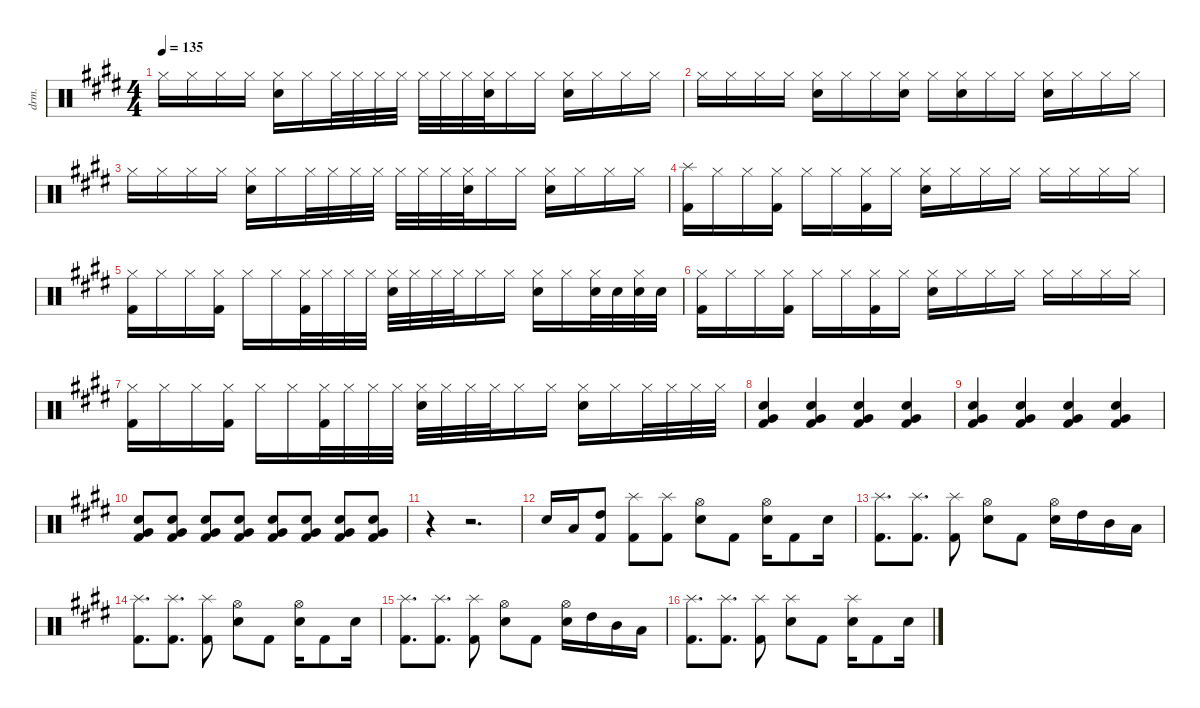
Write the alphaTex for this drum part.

\defaultSystemsLayout 4
\hideDynamics
\bracketExtendMode nobrackets
\track ("Drumkit" "drm.") {instrument percussion}
\staff {score}
\articulation defaults
\ts (4 4)
\tempo 135
\clef neutral
\ks e "Hi-Hat (closed)"{acc forcenatural}.16{dy mf} "Hi-Hat (closed)"{acc forcenatural}.16 "Hi-Hat (closed)"{acc forcenatural}.16 "Hi-Hat (closed)"{acc forcenatural}.16
("Hi-Hat (closed)"{acc forcenatural} "Snare (hit) 2"{acc forcenatural}).16 "Hi-Hat (closed)"{acc forcenatural}.16 "Hi-Hat (closed)"{acc forcenatural}.32 "Hi-Hat (closed)"{acc forcenatural}.32 "Hi-Hat (closed)"{acc forcenatural}.32 "Hi-Hat (closed)"{acc forcenatural}.32 "Hi-Hat (closed)"{acc forcenatural}.32 "Hi-Hat (closed)"{acc forcenatural}.32 "Hi-Hat (closed)"{acc forcenatural}.32 ("Hi-Hat (closed)"{acc forcenatural} "Snare (hit) 2"{acc forcenatural}).32 "Hi-Hat (closed)"{acc forcenatural}.16 "Hi-Hat (closed)"{acc forcenatural}.16 ("Hi-Hat (closed)"{acc forcenatural} "Snare (hit) 2"{acc forcenatural}).16 "Hi-Hat (closed)"{acc forcenatural}.16 "Hi-Hat (closed)"{acc forcenatural}.16 "Hi-Hat (closed)"{acc forcenatural}.16 |
"Hi-Hat (closed)"{acc forcenatural}.16 "Hi-Hat (closed)"{acc forcenatural}.16 "Hi-Hat (closed)"{acc forcenatural}.16 "Hi-Hat (closed)"{acc forcenatural}.16 ("Hi-Hat (closed)"{acc forcenatural} "Snare (hit) 2"{acc forcenatural}).16 "Hi-Hat (closed)"{acc forcenatural}.16 "Hi-Hat (closed)"{acc forcenatural}.16 ("Hi-Hat (closed)"{acc forcenatural} "Snare (hit) 2"{acc forcenatural}).16 "Hi-Hat (closed)"{acc forcenatural}.16 ("Hi-Hat (closed)"{acc forcenatural} "Snare (hit) 2"{acc forcenatural}).16 "Hi-Hat (closed)"{acc forcenatural}.16 "Hi-Hat (closed)"{acc forcenatural}.16 ("Hi-Hat (closed)"{acc forcenatural} "Snare (hit) 2"{acc forcenatural}).16 "Hi-Hat (closed)"{acc forcenatural}.16 "Hi-Hat (closed)"{acc forcenatural}.16 "Hi-Hat (closed)"{acc forcenatural}.16 |
"Hi-Hat (closed)"{acc forcenatural}.16 "Hi-Hat (closed)"{acc forcenatural}.16 "Hi-Hat (closed)"{acc forcenatural}.16 "Hi-Hat (closed)"{acc forcenatural}.16 ("Hi-Hat (closed)"{acc forcenatural} "Snare (hit) 2"{acc forcenatural}).16 "Hi-Hat (closed)"{acc forcenatural}.16 "Hi-Hat (closed)"{acc forcenatural}.32 "Hi-Hat (closed)"{acc forcenatural}.32 "Hi-Hat (closed)"{acc forcenatural}.32 "Hi-Hat (closed)"{acc forcenatural}.32 "Hi-Hat (closed)"{acc forcenatural}.32 "Hi-Hat (closed)"{acc forcenatural}.32 "Hi-Hat (closed)"{acc forcenatural}.32 ("Hi-Hat (closed)"{acc forcenatural} "Snare (hit) 2"{acc forcenatural}).32 "Hi-Hat (closed)"{acc forcenatural}.16 "Hi-Hat (closed)"{acc forcenatural}.16 ("Hi-Hat (closed)"{acc forcenatural} "Snare (hit) 2"{acc forcenatural}).16 "Hi-Hat (closed)"{acc forcenatural}.16 "Hi-Hat (closed)"{acc forcenatural}.16 "Hi-Hat (closed)"{acc forcenatural}.16 |
("Splash (hit)"{acc forcenatural} "Kick (hit) 2"{acc forcenatural}).16 "Hi-Hat (closed)"{acc forcenatural}.16 "Hi-Hat (closed)"{acc forcenatural}.16 ("Hi-Hat (closed)"{acc forcenatural} "Kick (hit) 2"{acc forcenatural}).16 "Hi-Hat (closed)"{acc forcenatural}.16 "Hi-Hat (closed)"{acc forcenatural}.16 ("Hi-Hat (closed)"{acc forcenatural} "Kick (hit) 2"{acc forcenatural}).16 "Hi-Hat (closed)"{acc forcenatural}.16 ("Hi-Hat (closed)"{acc forcenatural} "Snare (hit) 2"{acc forcenatural}).16 "Hi-Hat (closed)"{acc forcenatural}.16 "Hi-Hat (closed)"{acc forcenatural}.16 "Hi-Hat (closed)"{acc forcenatural}.16 "Hi-Hat (closed)"{acc forcenatural}.16 "Hi-Hat (closed)"{acc forcenatural}.16 "Hi-Hat (closed)"{acc forcenatural}.16 "Hi-Hat (closed)"{acc forcenatural}.16 |
("Hi-Hat (closed)"{acc forcenatural} "Kick (hit) 2"{acc forcenatural}).16 "Hi-Hat (closed)"{acc forcenatural}.16 "Hi-Hat (closed)"{acc forcenatural}.16 ("Hi-Hat (closed)"{acc forcenatural} "Kick (hit) 2"{acc forcenatural}).16 "Hi-Hat (closed)"{acc forcenatural}.16 "Hi-Hat (closed)"{acc forcenatural}.16 ("Hi-Hat (closed)"{acc forcenatural} "Kick (hit) 2"{acc forcenatural}).32 "Hi-Hat (closed)"{acc forcenatural}.32 "Hi-Hat (closed)"{acc forcenatural}.32 "Hi-Hat (closed)"{acc forcenatural}.32 ("Hi-Hat (closed)"{acc forcenatural} "Snare (hit) 2"{acc forcenatural}).32 "Hi-Hat (closed)"{acc forcenatural}.32 "Hi-Hat (closed)"{acc forcenatural}.32 "Hi-Hat (closed)"{acc forcenatural}.32 "Hi-Hat (closed)"{acc forcenatural}.16 "Hi-Hat (closed)"{acc forcenatural}.16 ("Hi-Hat (closed)"{acc forcenatural} "Snare (hit) 2"{acc forcenatural}).16 "Hi-Hat (closed)"{acc forcenatural}.16 ("Hi-Hat (closed)"{acc forcenatural} "Snare (hit) 2"{acc forcenatural}).32 "Snare (hit) 2"{acc forcenatural}.32 ("Hi-Hat (closed)"{acc forcenatural} "Snare (hit) 2"{acc forcenatural}).32 "Snare (hit) 2"{acc forcenatural}.32 |
("Kick (hit) 2"{acc forcenatural} "Hi-Hat (closed)"{acc forcenatural}).16 "Hi-Hat (closed)"{acc forcenatural}.16 "Hi-Hat (closed)"{acc forcenatural}.16 ("Hi-Hat (closed)"{acc forcenatural} "Kick (hit) 2"{acc forcenatural}).16 "Hi-Hat (closed)"{acc forcenatural}.16 "Hi-Hat (closed)"{acc forcenatural}.16 ("Hi-Hat (closed)"{acc forcenatural} "Kick (hit) 2"{acc forcenatural}).16 "Hi-Hat (closed)"{acc forcenatural}.16 ("Hi-Hat (closed)"{acc forcenatural} "Snare (hit) 2"{acc forcenatural}).16 "Hi-Hat (closed)"{acc forcenatural}.16 "Hi-Hat (closed)"{acc forcenatural}.16 "Hi-Hat (closed)"{acc forcenatural}.16 "Hi-Hat (closed)"{acc forcenatural}.16 "Hi-Hat (closed)"{acc forcenatural}.16 "Hi-Hat (closed)"{acc forcenatural}.16 "Hi-Hat (closed)"{acc forcenatural}.16 |
("Hi-Hat (closed)"{acc forcenatural} "Kick (hit) 2"{acc forcenatural}).16 "Hi-Hat (closed)"{acc forcenatural}.16 "Hi-Hat (closed)"{acc forcenatural}.16 ("Hi-Hat (closed)"{acc forcenatural} "Kick (hit) 2"{acc forcenatural}).16 "Hi-Hat (closed)"{acc forcenatural}.16 "Hi-Hat (closed)"{acc forcenatural}.16 ("Hi-Hat (closed)"{acc forcenatural} "Kick (hit) 2"{acc forcenatural}).32 "Hi-Hat (closed)"{acc forcenatural}.32 "Hi-Hat (closed)"{acc forcenatural}.32 "Hi-Hat (closed)"{acc forcenatural}.32 ("Hi-Hat (closed)"{acc forcenatural} "Snare (hit) 2"{acc forcenatural}).32 "Hi-Hat (closed)"{acc forcenatural}.32 "Hi-Hat (closed)"{acc forcenatural}.32 "Hi-Hat (closed)"{acc forcenatural}.32 "Hi-Hat (closed)"{acc forcenatural}.16 "Hi-Hat (closed)"{acc forcenatural}.16 ("Hi-Hat (closed)"{acc forcenatural} "Snare (hit) 2"{acc forcenatural}).16 "Hi-Hat (closed)"{acc forcenatural}.16 "Hi-Hat (closed)"{acc forcenatural}.32 "Hi-Hat (closed)"{acc forcenatural}.32 "Hi-Hat (closed)"{acc forcenatural}.32 "Hi-Hat (closed)"{acc forcenatural}.32 |
("Snare (hit) 2"{acc forcenatural} "Very Low Tom (hit)"{acc forcenatural} "Kick (hit) 2"{acc forcenatural}).4 ("Snare (hit) 2"{acc forcenatural} "Very Low Tom (hit)"{acc forcenatural} "Kick (hit) 2"{acc forcenatural}).4 ("Snare (hit) 2"{acc forcenatural} "Very Low Tom (hit)"{acc forcenatural} "Kick (hit) 2"{acc forcenatural}).4 ("Snare (hit) 2"{acc forcenatural} "Very Low Tom (hit)"{acc forcenatural} "Kick (hit) 2"{acc forcenatural}).4 |
("Snare (hit) 2"{acc forcenatural} "Very Low Tom (hit)"{acc forcenatural} "Kick (hit) 2"{acc forcenatural}).4 ("Snare (hit) 2"{acc forcenatural} "Very Low Tom (hit)"{acc forcenatural} "Kick (hit) 2"{acc forcenatural}).4 ("Snare (hit) 2"{acc forcenatural} "Very Low Tom (hit)"{acc forcenatural} "Kick (hit) 2"{acc forcenatural}).4 ("Snare (hit) 2"{acc forcenatural} "Very Low Tom (hit)"{acc forcenatural} "Kick (hit) 2"{acc forcenatural}).4 |
("Snare (hit) 2"{acc forcenatural} "Very Low Tom (hit)"{acc forcenatural} "Kick (hit) 2"{acc forcenatural}).8 ("Snare (hit) 2"{acc forcenatural} "Very Low Tom (hit)"{acc forcenatural} "Kick (hit) 2"{acc forcenatural}).8 ("Snare (hit) 2"{acc forcenatural} "Very Low Tom (hit)"{acc forcenatural} "Kick (hit) 2"{acc forcenatural}).8 ("Snare (hit) 2"{acc forcenatural} "Very Low Tom (hit)"{acc forcenatural} "Kick (hit) 2"{acc forcenatural}).8 ("Snare (hit) 2"{acc forcenatural} "Very Low Tom (hit)"{acc forcenatural} "Kick (hit) 2"{acc forcenatural}).8 ("Snare (hit) 2"{acc forcenatural} "Very Low Tom (hit)"{acc forcenatural} "Kick (hit) 2"{acc forcenatural}).8 ("Snare (hit) 2"{acc forcenatural} "Very Low Tom (hit)"{acc forcenatural} "Kick (hit) 2"{acc forcenatural}).8 ("Snare (hit) 2"{acc forcenatural} "Very Low Tom (hit)"{acc forcenatural} "Kick (hit) 2"{acc forcenatural}).8 |
r.4 r.2{d} |
"Snare (hit) 2"{acc forcenatural}.16 "Low Tom (hit)"{acc forcenatural}.16 ("Kick (hit) 2"{acc forcenatural} "High Tom (hit)"{acc forcenatural}).8 ("Splash (hit)"{acc forcenatural} "Kick (hit) 2"{acc forcenatural}).8 ("Kick (hit) 2"{acc forcenatural} "Splash (hit)"{acc forcenatural}).8 ("Hi-Hat (open)"{acc forcenatural} "Snare (hit) 2"{acc forcenatural}).8 "Kick (hit) 2"{acc forcenatural}.8 ("Hi-Hat (open)"{acc forcenatural} "Snare (hit) 2"{acc forcenatural}).16 "Kick (hit) 2"{acc forcenatural}.8 "Snare (hit) 2"{acc forcenatural}.16 |
("Splash (hit)"{acc forcenatural} "Kick (hit) 2"{acc forcenatural}).8{d} ("Kick (hit) 2"{acc forcenatural} "Splash (hit)"{acc forcenatural}).8{d} ("Splash (hit)"{acc forcenatural} "Kick (hit) 2"{acc forcenatural}).8 ("Snare (hit) 2"{acc forcenatural} "Hi-Hat (open)"{acc forcenatural}).8 "Kick (hit) 2"{acc forcenatural}.8 ("Hi-Hat (open)"{acc forcenatural} "Snare (hit) 2"{acc forcenatural}).16 "High Tom (hit)"{acc forcenatural}.16 "Mid Tom (hit)"{acc forcenatural}.16 "Low Tom (hit)"{acc forcenatural}.16 |
("Splash (hit)"{acc forcenatural} "Kick (hit) 2"{acc forcenatural}).8{d} ("Kick (hit) 2"{acc forcenatural} "Splash (hit)"{acc forcenatural}).8{d} ("Splash (hit)"{acc forcenatural} "Kick (hit) 2"{acc forcenatural}).8 ("Snare (hit) 2"{acc forcenatural} "Hi-Hat (open)"{acc forcenatural}).8 "Kick (hit) 2"{acc forcenatural}.8 ("Hi-Hat (open)"{acc forcenatural} "Snare (hit) 2"{acc forcenatural}).16 "Kick (hit) 2"{acc forcenatural}.8 "Snare (hit) 2"{acc forcenatural}.16 |
("Splash (hit)"{acc forcenatural} "Kick (hit) 2"{acc forcenatural}).8{d} ("Kick (hit) 2"{acc forcenatural} "Splash (hit)"{acc forcenatural}).8{d} ("Splash (hit)"{acc forcenatural} "Kick (hit) 2"{acc forcenatural}).8 ("Snare (hit) 2"{acc forcenatural} "Hi-Hat (open)"{acc forcenatural}).8 "Kick (hit) 2"{acc forcenatural}.8 ("Hi-Hat (open)"{acc forcenatural} "Snare (hit) 2"{acc forcenatural}).16 "High Tom (hit)"{acc forcenatural}.16 "Mid Tom (hit)"{acc forcenatural}.16 "Low Tom (hit)"{acc forcenatural}.16 |
("Splash (hit)"{acc forcenatural} "Kick (hit) 2"{acc forcenatural}).8{d} ("Kick (hit) 2"{acc forcenatural} "Splash (hit)"{acc forcenatural}).8{d} ("Splash (hit)"{acc forcenatural} "Kick (hit) 2"{acc forcenatural}).8 ("Snare (hit) 2"{acc forcenatural} "Splash (hit)"{acc forcenatural}).8 "Kick (hit) 2"{acc forcenatural}.8 ("Snare (hit) 2"{acc forcenatural} "Splash (hit)"{acc forcenatural}).16 "Kick (hit) 2"{acc forcenatural}.8 "Snare (hit) 2"{acc forcenatural}.16
